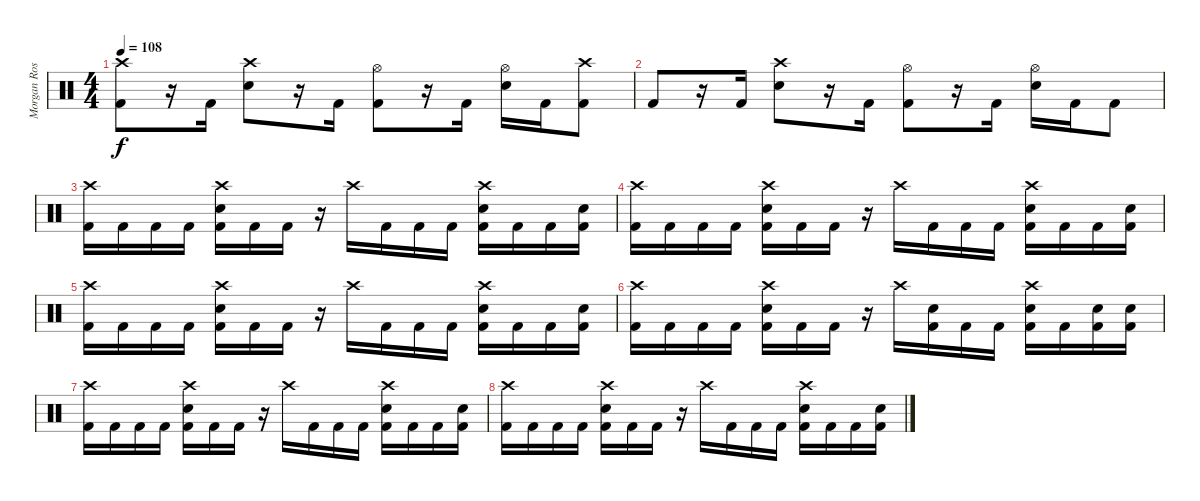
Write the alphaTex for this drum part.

\track ("Morgan Rose - Drums" "Morgan Ros") {instrument percussion}
\staff {score}
\articulation defaults
\ts (4 4)
\tempo 108
\clef neutral
\ks c
("Crash high (hit)" "Kick (hit) 2").8{dy f} r.16 "Kick (hit) 2".16 ("Crash high (hit)" "Electric Snare (hit)").8 r.16 "Kick (hit) 2".16 ("Hi-Hat (open)" "Kick (hit) 2").8 r.16 "Kick (hit) 2".16 ("Hi-Hat (open)" "Electric Snare (hit)").16 "Kick (hit) 2".16 ("Crash high (hit)" "Kick (hit) 2").8 |
"Kick (hit) 2".8 r.16 "Kick (hit) 2".16 ("Crash high (hit)" "Electric Snare (hit)").8 r.16 "Kick (hit) 2".16 ("Hi-Hat (open)" "Kick (hit) 2").8 r.16 "Kick (hit) 2".16 ("Hi-Hat (open)" "Electric Snare (hit)").16 "Kick (hit) 2".16 "Kick (hit) 2".8 |
("Crash high (hit)" "Kick (hit) 2").16 "Kick (hit) 2".16 "Kick (hit) 2".16 "Kick (hit) 2".16 ("Crash high (hit)" "Electric Snare (hit)" "Kick (hit) 2").16 "Kick (hit) 2".16 "Kick (hit) 2".16 r.16 "Crash high (hit)".16 "Kick (hit) 2".16 "Kick (hit) 2".16 "Kick (hit) 2".16 ("Crash high (hit)" "Electric Snare (hit)" "Kick (hit) 2").16 "Kick (hit) 2".16 "Kick (hit) 2".16 ("Electric Snare (hit)" "Kick (hit) 2").16 |
("Crash high (hit)" "Kick (hit) 2").16 "Kick (hit) 2".16 "Kick (hit) 2".16 "Kick (hit) 2".16 ("Crash high (hit)" "Electric Snare (hit)" "Kick (hit) 2").16 "Kick (hit) 2".16 "Kick (hit) 2".16 r.16 "Crash high (hit)".16 "Kick (hit) 2".16 "Kick (hit) 2".16 "Kick (hit) 2".16 ("Crash high (hit)" "Electric Snare (hit)" "Kick (hit) 2").16 "Kick (hit) 2".16 "Kick (hit) 2".16 ("Electric Snare (hit)" "Kick (hit) 2").16 |
("Crash high (hit)" "Kick (hit) 2").16 "Kick (hit) 2".16 "Kick (hit) 2".16 "Kick (hit) 2".16 ("Crash high (hit)" "Electric Snare (hit)" "Kick (hit) 2").16 "Kick (hit) 2".16 "Kick (hit) 2".16 r.16 "Crash high (hit)".16 "Kick (hit) 2".16 "Kick (hit) 2".16 "Kick (hit) 2".16 ("Crash high (hit)" "Electric Snare (hit)" "Kick (hit) 2").16 "Kick (hit) 2".16 "Kick (hit) 2".16 ("Electric Snare (hit)" "Kick (hit) 2").16 |
("Crash high (hit)" "Kick (hit) 2").16 "Kick (hit) 2".16 "Kick (hit) 2".16 "Kick (hit) 2".16 ("Crash high (hit)" "Electric Snare (hit)" "Kick (hit) 2").16 "Kick (hit) 2".16 "Kick (hit) 2".16 r.16 "Crash high (hit)".16 ("Electric Snare (hit)" "Kick (hit) 2").16 "Kick (hit) 2".16 "Kick (hit) 2".16 ("Crash high (hit)" "Electric Snare (hit)" "Kick (hit) 2").16 "Kick (hit) 2".16 ("Electric Snare (hit)" "Kick (hit) 2").16 ("Electric Snare (hit)" "Kick (hit) 2").16 |
("Crash high (hit)" "Kick (hit) 2").16 "Kick (hit) 2".16 "Kick (hit) 2".16 "Kick (hit) 2".16 ("Crash high (hit)" "Electric Snare (hit)" "Kick (hit) 2").16 "Kick (hit) 2".16 "Kick (hit) 2".16 r.16 "Crash high (hit)".16 "Kick (hit) 2".16 "Kick (hit) 2".16 "Kick (hit) 2".16 ("Crash high (hit)" "Electric Snare (hit)" "Kick (hit) 2").16 "Kick (hit) 2".16 "Kick (hit) 2".16 ("Electric Snare (hit)" "Kick (hit) 2").16 |
("Crash high (hit)" "Kick (hit) 2").16 "Kick (hit) 2".16 "Kick (hit) 2".16 "Kick (hit) 2".16 ("Crash high (hit)" "Electric Snare (hit)" "Kick (hit) 2").16 "Kick (hit) 2".16 "Kick (hit) 2".16 r.16 "Crash high (hit)".16 "Kick (hit) 2".16 "Kick (hit) 2".16 "Kick (hit) 2".16 ("Crash high (hit)" "Electric Snare (hit)" "Kick (hit) 2").16 "Kick (hit) 2".16 "Kick (hit) 2".16 ("Electric Snare (hit)" "Kick (hit) 2").16
